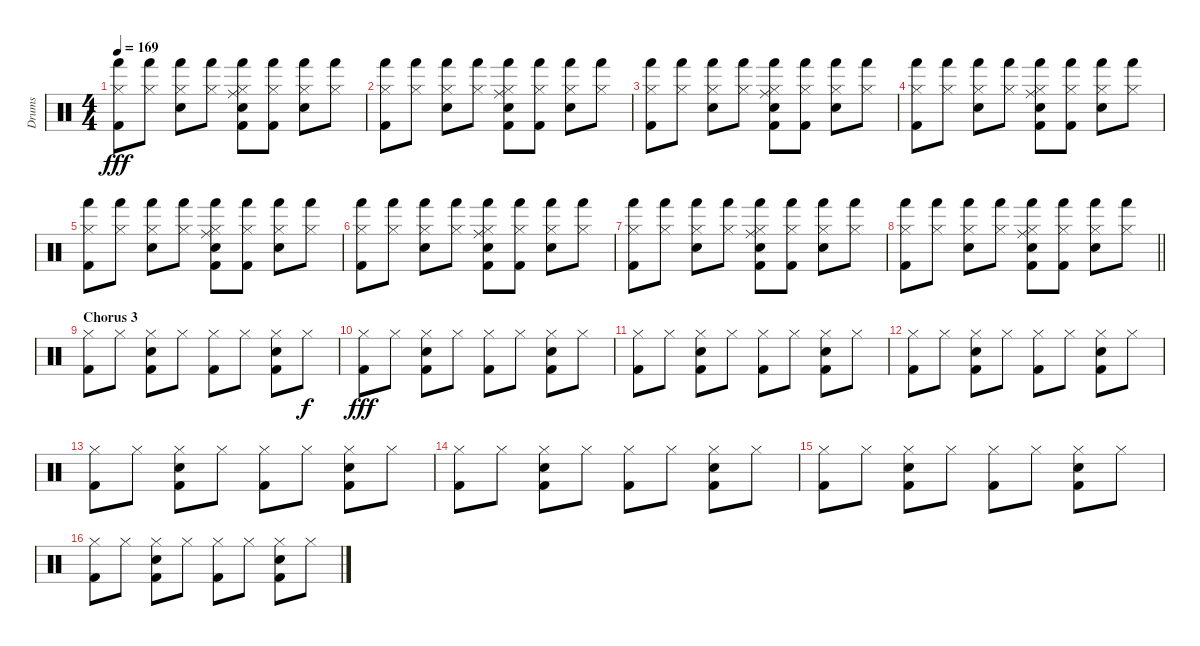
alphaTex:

\track ("Drums" "Drums") {instrument percussion}
\staff {score}
\articulation defaults
\ts (4 4)
\tempo 169
\clef neutral
\ks c
("Kick (hit) 2" "Hand (hit)" "Hi-Hat (closed)").8{dy fff} ("Hand (hit)" "Hi-Hat (closed)").8 ("Snare (hit) 2" "Hand (hit)" "Hi-Hat (closed)").8 ("Hand (hit)" "Hi-Hat (closed)").8 ("Kick (hit) 2" "Hand (hit)" "Electric Snare (hit)" "Ride (middle)" "Hi-Hat (closed)").8 ("Kick (hit) 2" "Hand (hit)" "Hi-Hat (closed)").8 ("Snare (hit) 2" "Hand (hit)" "Hi-Hat (closed)").8 ("Hand (hit)" "Hi-Hat (closed)").8 |
("Kick (hit) 2" "Hand (hit)" "Hi-Hat (closed)").8 ("Hand (hit)" "Hi-Hat (closed)").8 ("Snare (hit) 2" "Hand (hit)" "Hi-Hat (closed)").8 ("Hand (hit)" "Hi-Hat (closed)").8 ("Kick (hit) 2" "Hand (hit)" "Electric Snare (hit)" "Ride (middle)" "Hi-Hat (closed)").8 ("Kick (hit) 2" "Hand (hit)" "Hi-Hat (closed)").8 ("Snare (hit) 2" "Hand (hit)" "Hi-Hat (closed)").8 ("Hand (hit)" "Hi-Hat (closed)").8 |
("Kick (hit) 2" "Hand (hit)" "Hi-Hat (closed)").8 ("Hand (hit)" "Hi-Hat (closed)").8 ("Snare (hit) 2" "Hand (hit)" "Hi-Hat (closed)").8 ("Hand (hit)" "Hi-Hat (closed)").8 ("Kick (hit) 2" "Hand (hit)" "Electric Snare (hit)" "Ride (middle)" "Hi-Hat (closed)").8 ("Kick (hit) 2" "Hand (hit)" "Hi-Hat (closed)").8 ("Snare (hit) 2" "Hand (hit)" "Hi-Hat (closed)").8 ("Hand (hit)" "Hi-Hat (closed)").8 |
("Kick (hit) 2" "Hand (hit)" "Hi-Hat (closed)").8 ("Hand (hit)" "Hi-Hat (closed)").8 ("Snare (hit) 2" "Hand (hit)" "Hi-Hat (closed)").8 ("Hand (hit)" "Hi-Hat (closed)").8 ("Kick (hit) 2" "Hand (hit)" "Electric Snare (hit)" "Ride (middle)" "Hi-Hat (closed)").8 ("Kick (hit) 2" "Hand (hit)" "Hi-Hat (closed)").8 ("Snare (hit) 2" "Hand (hit)" "Hi-Hat (closed)").8 ("Hand (hit)" "Hi-Hat (closed)").8 |
("Kick (hit) 2" "Hand (hit)" "Hi-Hat (closed)").8 ("Hand (hit)" "Hi-Hat (closed)").8 ("Snare (hit) 2" "Hand (hit)" "Hi-Hat (closed)").8 ("Hand (hit)" "Hi-Hat (closed)").8 ("Kick (hit) 2" "Hand (hit)" "Electric Snare (hit)" "Ride (middle)" "Hi-Hat (closed)").8 ("Kick (hit) 2" "Hand (hit)" "Hi-Hat (closed)").8 ("Snare (hit) 2" "Hand (hit)" "Hi-Hat (closed)").8 ("Hand (hit)" "Hi-Hat (closed)").8 |
("Kick (hit) 2" "Hand (hit)" "Hi-Hat (closed)").8 ("Hand (hit)" "Hi-Hat (closed)").8 ("Snare (hit) 2" "Hand (hit)" "Hi-Hat (closed)").8 ("Hand (hit)" "Hi-Hat (closed)").8 ("Kick (hit) 2" "Hand (hit)" "Electric Snare (hit)" "Ride (middle)" "Hi-Hat (closed)").8 ("Kick (hit) 2" "Hand (hit)" "Hi-Hat (closed)").8 ("Snare (hit) 2" "Hand (hit)" "Hi-Hat (closed)").8 ("Hand (hit)" "Hi-Hat (closed)").8 |
("Kick (hit) 2" "Hand (hit)" "Hi-Hat (closed)").8 ("Hand (hit)" "Hi-Hat (closed)").8 ("Snare (hit) 2" "Hand (hit)" "Hi-Hat (closed)").8 ("Hand (hit)" "Hi-Hat (closed)").8 ("Kick (hit) 2" "Hand (hit)" "Electric Snare (hit)" "Ride (middle)" "Hi-Hat (closed)").8 ("Kick (hit) 2" "Hand (hit)" "Hi-Hat (closed)").8 ("Snare (hit) 2" "Hand (hit)" "Hi-Hat (closed)").8 ("Hand (hit)" "Hi-Hat (closed)").8 |
\barLineRight lightlight
("Kick (hit) 2" "Hand (hit)" "Hi-Hat (closed)").8 ("Hand (hit)" "Hi-Hat (closed)").8 ("Snare (hit) 2" "Hand (hit)" "Hi-Hat (closed)").8 ("Hand (hit)" "Hi-Hat (closed)").8 ("Kick (hit) 2" "Hand (hit)" "Electric Snare (hit)" "Ride (middle)" "Hi-Hat (closed)").8 ("Kick (hit) 2" "Hand (hit)" "Hi-Hat (closed)").8 ("Snare (hit) 2" "Hand (hit)" "Hi-Hat (closed)").8 ("Hand (hit)" "Hi-Hat (closed)").8 |
\section ("" "Chorus 3")
("Kick (hit) 2" "Hi-Hat (closed)").8 "Hi-Hat (closed)".8 ("Kick (hit) 2" "Snare (hit) 2" "Hi-Hat (closed)").8 "Hi-Hat (closed)".8 ("Kick (hit) 2" "Hi-Hat (closed)").8 "Hi-Hat (closed)".8 ("Kick (hit) 2" "Snare (hit) 2" "Hi-Hat (closed)").8 "Hi-Hat (closed)".8{dy f} |
("Kick (hit) 2" "Hi-Hat (closed)").8{dy fff} "Hi-Hat (closed)".8 ("Snare (hit) 2" "Kick (hit) 2" "Hi-Hat (closed)").8 "Hi-Hat (closed)".8 ("Kick (hit) 2" "Hi-Hat (closed)").8 "Hi-Hat (closed)".8 ("Kick (hit) 2" "Snare (hit) 2" "Hi-Hat (closed)").8 "Hi-Hat (closed)".8 |
("Kick (hit) 2" "Hi-Hat (closed)").8 "Hi-Hat (closed)".8 ("Snare (hit) 2" "Kick (hit) 2" "Hi-Hat (closed)").8 "Hi-Hat (closed)".8 ("Kick (hit) 2" "Hi-Hat (closed)").8 "Hi-Hat (closed)".8 ("Snare (hit) 2" "Kick (hit) 2" "Hi-Hat (closed)").8 "Hi-Hat (closed)".8 |
("Kick (hit) 2" "Hi-Hat (closed)").8 "Hi-Hat (closed)".8 ("Kick (hit) 2" "Snare (hit) 2" "Hi-Hat (closed)").8 "Hi-Hat (closed)".8 ("Kick (hit) 2" "Hi-Hat (closed)").8 "Hi-Hat (closed)".8 ("Kick (hit) 2" "Snare (hit) 2" "Hi-Hat (closed)").8 "Hi-Hat (closed)".8 |
("Kick (hit) 2" "Hi-Hat (closed)").8 "Hi-Hat (closed)".8 ("Kick (hit) 2" "Snare (hit) 2" "Hi-Hat (closed)").8 "Hi-Hat (closed)".8 ("Kick (hit) 2" "Hi-Hat (closed)").8 "Hi-Hat (closed)".8 ("Snare (hit) 2" "Kick (hit) 2" "Hi-Hat (closed)").8 "Hi-Hat (closed)".8 |
("Kick (hit) 2" "Hi-Hat (closed)").8 "Hi-Hat (closed)".8 ("Kick (hit) 2" "Snare (hit) 2" "Hi-Hat (closed)").8 "Hi-Hat (closed)".8 ("Kick (hit) 2" "Hi-Hat (closed)").8 "Hi-Hat (closed)".8 ("Snare (hit) 2" "Kick (hit) 2" "Hi-Hat (closed)").8 "Hi-Hat (closed)".8 |
("Kick (hit) 2" "Hi-Hat (closed)").8 "Hi-Hat (closed)".8 ("Snare (hit) 2" "Kick (hit) 2" "Hi-Hat (closed)").8 "Hi-Hat (closed)".8 ("Kick (hit) 2" "Hi-Hat (closed)").8 "Hi-Hat (closed)".8 ("Kick (hit) 2" "Snare (hit) 2" "Hi-Hat (closed)").8 "Hi-Hat (closed)".8 |
("Kick (hit) 2" "Hi-Hat (closed)").8 "Hi-Hat (closed)".8 ("Kick (hit) 2" "Snare (hit) 2" "Hi-Hat (closed)").8 "Hi-Hat (closed)".8 ("Kick (hit) 2" "Hi-Hat (closed)").8 "Hi-Hat (closed)".8 ("Snare (hit) 2" "Kick (hit) 2" "Hi-Hat (closed)").8 "Hi-Hat (closed)".8
